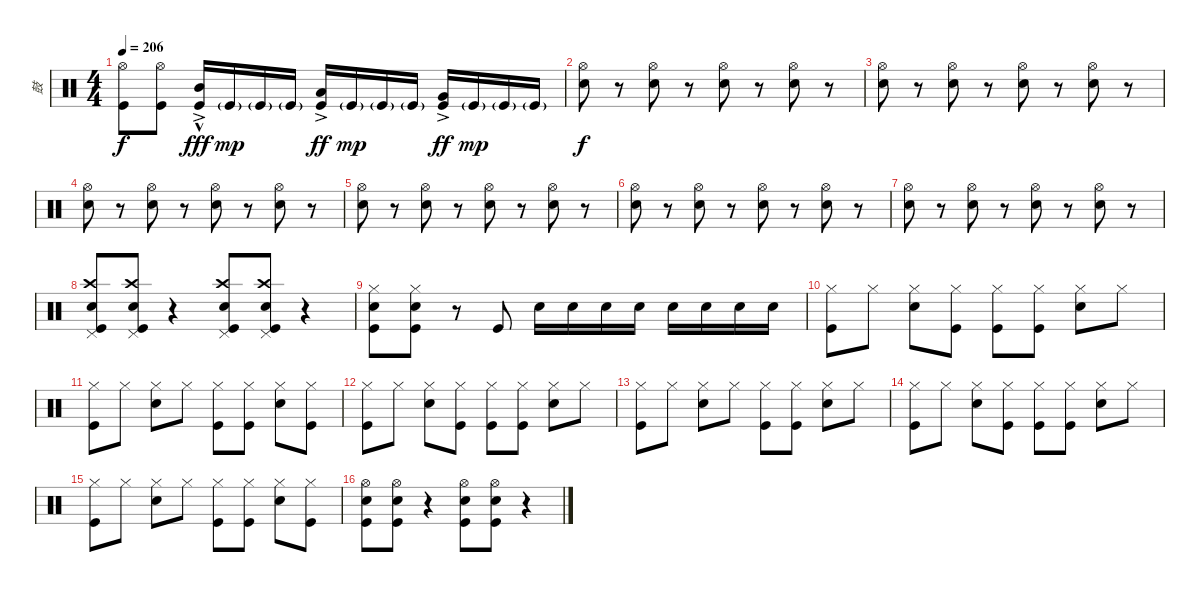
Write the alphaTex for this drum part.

\track ("鼓" "鼓") {instrument percussion}
\staff {score}
\articulation defaults
\ts (4 4)
\tempo 206
\clef neutral
\ks c
("Hi-Hat (open)" "Kick (hit)").8{dy f} ("Hi-Hat (open)" "Kick (hit)").8 ("Mid Tom (hit)"{ac} "Kick (hit)"{hac}).16{dy fff} "Kick (hit)"{g}.16{dy mp} "Kick (hit)"{g}.16 "Kick (hit)"{g}.16 ("Low Tom (hit)"{ac} "Kick (hit)").16{dy ff} "Kick (hit)"{g}.16{dy mp} "Kick (hit)"{g}.16 "Kick (hit)"{g}.16 ("Very Low Tom (hit)"{ac} "Kick (hit)").16{dy ff} "Kick (hit)"{g}.16{dy mp} "Kick (hit)"{g}.16 "Kick (hit)"{g}.16 |
("Hi-Hat (open)" "Snare (hit) 2").8{dy f} r.8 ("Hi-Hat (open)" "Snare (hit) 2").8 r.8 ("Hi-Hat (open)" "Snare (hit) 2").8 r.8 ("Hi-Hat (open)" "Snare (hit) 2").8 r.8 |
("Hi-Hat (open)" "Snare (hit) 2").8 r.8 ("Hi-Hat (open)" "Snare (hit) 2").8 r.8 ("Hi-Hat (open)" "Snare (hit) 2").8 r.8 ("Hi-Hat (open)" "Snare (hit) 2").8 r.8 |
("Hi-Hat (open)" "Snare (hit) 2").8 r.8 ("Hi-Hat (open)" "Snare (hit) 2").8 r.8 ("Hi-Hat (open)" "Snare (hit) 2").8 r.8 ("Hi-Hat (open)" "Snare (hit) 2").8 r.8 |
("Hi-Hat (open)" "Snare (hit) 2").8 r.8 ("Hi-Hat (open)" "Snare (hit) 2").8 r.8 ("Hi-Hat (open)" "Snare (hit) 2").8 r.8 ("Hi-Hat (open)" "Snare (hit) 2").8 r.8 |
("Hi-Hat (open)" "Snare (hit) 2").8 r.8 ("Hi-Hat (open)" "Snare (hit) 2").8 r.8 ("Hi-Hat (open)" "Snare (hit) 2").8 r.8 ("Hi-Hat (open)" "Snare (hit) 2").8 r.8 |
("Hi-Hat (open)" "Snare (hit) 2").8 r.8 ("Hi-Hat (open)" "Snare (hit) 2").8 r.8 ("Hi-Hat (open)" "Snare (hit) 2").8 r.8 ("Hi-Hat (open)" "Snare (hit) 2").8 r.8 |
("Crash high (hit)" "Snare (hit) 2" "Pedal Hi-Hat (hit)" "Kick (hit)").8 ("Crash high (hit)" "Snare (hit) 2" "Pedal Hi-Hat (hit)" "Kick (hit)").8 r.4 ("Crash high (hit)" "Snare (hit) 2" "Pedal Hi-Hat (hit)" "Kick (hit)").8 ("Crash high (hit)" "Snare (hit) 2" "Pedal Hi-Hat (hit)" "Kick (hit)").8 r.4 |
("Hi-Hat (closed)" "Snare (hit) 2" "Kick (hit)").8 ("Hi-Hat (closed)" "Snare (hit) 2" "Kick (hit)").8 r.8 "Kick (hit)".8 "Snare (hit) 2".16 "Snare (hit) 2".16 "Snare (hit) 2".16 "Snare (hit) 2".16 "Snare (hit) 2".16 "Snare (hit) 2".16 "Snare (hit) 2".16 "Snare (hit) 2".16 |
("Hi-Hat (closed)" "Kick (hit)").8 "Hi-Hat (closed)".8 ("Hi-Hat (closed)" "Electric Snare (hit)").8 ("Hi-Hat (closed)" "Kick (hit)").8 ("Hi-Hat (closed)" "Kick (hit)").8 ("Hi-Hat (closed)" "Kick (hit)").8 ("Hi-Hat (closed)" "Electric Snare (hit)").8 "Hi-Hat (closed)".8 |
("Hi-Hat (closed)" "Kick (hit)").8 "Hi-Hat (closed)".8 ("Hi-Hat (closed)" "Electric Snare (hit)").8 "Hi-Hat (closed)".8 ("Hi-Hat (closed)" "Kick (hit)").8 ("Hi-Hat (closed)" "Kick (hit)").8 ("Hi-Hat (closed)" "Electric Snare (hit)").8 ("Hi-Hat (closed)" "Kick (hit)").8 |
("Hi-Hat (closed)" "Kick (hit)").8 "Hi-Hat (closed)".8 ("Hi-Hat (closed)" "Electric Snare (hit)").8 ("Hi-Hat (closed)" "Kick (hit)").8 ("Hi-Hat (closed)" "Kick (hit)").8 ("Hi-Hat (closed)" "Kick (hit)").8 ("Hi-Hat (closed)" "Electric Snare (hit)").8 "Hi-Hat (closed)".8 |
("Hi-Hat (closed)" "Kick (hit)").8 "Hi-Hat (closed)".8 ("Hi-Hat (closed)" "Electric Snare (hit)").8 "Hi-Hat (closed)".8 ("Hi-Hat (closed)" "Kick (hit)").8 ("Hi-Hat (closed)" "Kick (hit)").8 ("Hi-Hat (closed)" "Electric Snare (hit)").8 "Hi-Hat (closed)".8 |
("Hi-Hat (closed)" "Kick (hit)").8 "Hi-Hat (closed)".8 ("Hi-Hat (closed)" "Electric Snare (hit)").8 ("Hi-Hat (closed)" "Kick (hit)").8 ("Hi-Hat (closed)" "Kick (hit)").8 ("Hi-Hat (closed)" "Kick (hit)").8 ("Hi-Hat (closed)" "Electric Snare (hit)").8 "Hi-Hat (closed)".8 |
("Hi-Hat (closed)" "Kick (hit)").8 "Hi-Hat (closed)".8 ("Hi-Hat (closed)" "Electric Snare (hit)").8 "Hi-Hat (closed)".8 ("Hi-Hat (closed)" "Kick (hit)").8 ("Hi-Hat (closed)" "Kick (hit)").8 ("Hi-Hat (closed)" "Electric Snare (hit)").8 ("Hi-Hat (closed)" "Kick (hit)").8 |
("Hi-Hat (open)" "Snare (hit) 2" "Kick (hit)").8 ("Hi-Hat (open)" "Snare (hit) 2" "Kick (hit)").8 r.4 ("Hi-Hat (open)" "Snare (hit) 2" "Kick (hit)").8 ("Hi-Hat (open)" "Snare (hit) 2" "Kick (hit)").8 r.4
